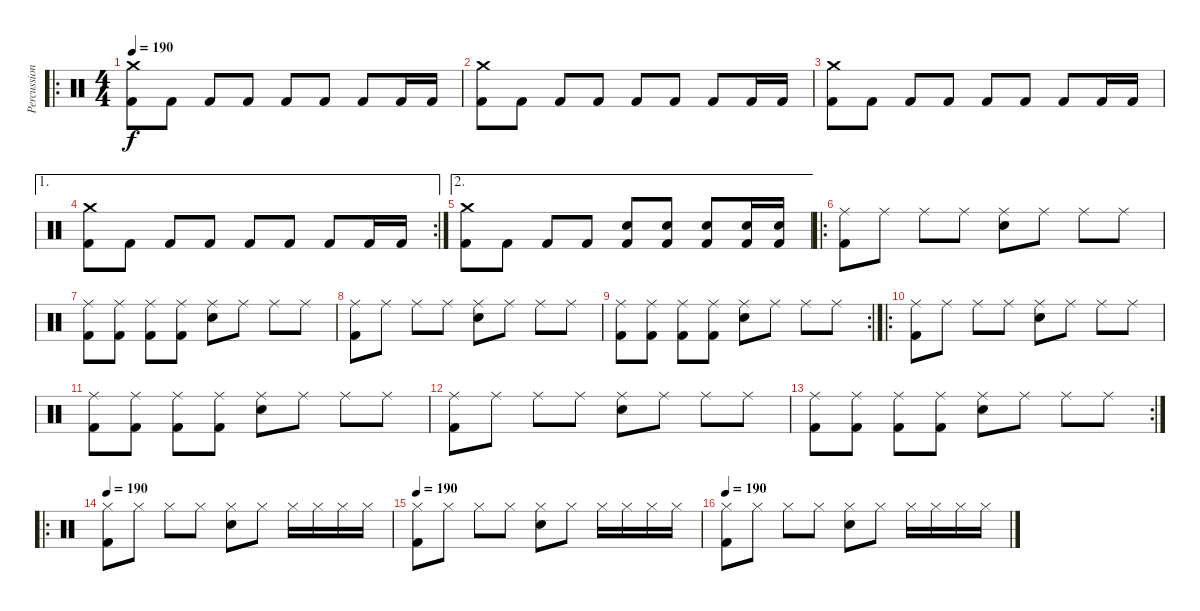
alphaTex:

\track ("Percussion" "Percussion") {instrument percussion}
\staff {score}
\articulation defaults
\ro
\ts (4 4)
\tempo 190
\clef neutral
\ks c
("Crash medium (hit)" "Kick (hit) 2").8{dy f} "Kick (hit) 2".8 "Kick (hit) 2".8 "Kick (hit) 2".8 "Kick (hit) 2".8 "Kick (hit) 2".8 "Kick (hit) 2".8 "Kick (hit) 2".16 "Kick (hit) 2".16 |
("Crash medium (hit)" "Kick (hit) 2").8 "Kick (hit) 2".8 "Kick (hit) 2".8 "Kick (hit) 2".8 "Kick (hit) 2".8 "Kick (hit) 2".8 "Kick (hit) 2".8 "Kick (hit) 2".16 "Kick (hit) 2".16 |
("Crash medium (hit)" "Kick (hit) 2").8 "Kick (hit) 2".8 "Kick (hit) 2".8 "Kick (hit) 2".8 "Kick (hit) 2".8 "Kick (hit) 2".8 "Kick (hit) 2".8 "Kick (hit) 2".16 "Kick (hit) 2".16 |
\ae 1
\rc 2
("Crash medium (hit)" "Kick (hit) 2").8 "Kick (hit) 2".8 "Kick (hit) 2".8 "Kick (hit) 2".8 "Kick (hit) 2".8 "Kick (hit) 2".8 "Kick (hit) 2".8 "Kick (hit) 2".16 "Kick (hit) 2".16 |
\ae 2
("Crash medium (hit)" "Kick (hit) 2").8 "Kick (hit) 2".8 "Kick (hit) 2".8 "Kick (hit) 2".8 ("Electric Snare (hit)" "Kick (hit) 2").8 ("Electric Snare (hit)" "Kick (hit) 2").8 ("Electric Snare (hit)" "Kick (hit) 2").8 ("Electric Snare (hit)" "Kick (hit) 2").16 ("Electric Snare (hit)" "Kick (hit) 2").16 |
\ro
("Ride (middle)" "Kick (hit) 2").8 "Ride (middle)".8 "Ride (middle)".8 "Ride (middle)".8 ("Ride (middle)" "Electric Snare (hit)").8 "Ride (middle)".8 "Ride (middle)".8 "Ride (middle)".8 |
("Ride (middle)" "Kick (hit) 2").8 ("Ride (middle)" "Kick (hit) 2").8 ("Ride (middle)" "Kick (hit) 2").8 ("Ride (middle)" "Kick (hit) 2").8 ("Ride (middle)" "Electric Snare (hit)").8 "Ride (middle)".8 "Ride (middle)".8 "Ride (middle)".8 |
("Ride (middle)" "Kick (hit) 2").8 "Ride (middle)".8 "Ride (middle)".8 "Ride (middle)".8 ("Ride (middle)" "Electric Snare (hit)").8 "Ride (middle)".8 "Ride (middle)".8 "Ride (middle)".8 |
\rc 2
("Ride (middle)" "Kick (hit) 2").8 ("Ride (middle)" "Kick (hit) 2").8 ("Ride (middle)" "Kick (hit) 2").8 ("Ride (middle)" "Kick (hit) 2").8 ("Ride (middle)" "Electric Snare (hit)").8 "Ride (middle)".8 "Ride (middle)".8 "Ride (middle)".8 |
\ro
("Ride (middle)" "Kick (hit) 2").8 "Ride (middle)".8 "Ride (middle)".8 "Ride (middle)".8 ("Ride (middle)" "Electric Snare (hit)").8 "Ride (middle)".8 "Ride (middle)".8 "Ride (middle)".8 |
("Ride (middle)" "Kick (hit) 2").8 ("Ride (middle)" "Kick (hit) 2").8 ("Ride (middle)" "Kick (hit) 2").8 ("Ride (middle)" "Kick (hit) 2").8 ("Ride (middle)" "Electric Snare (hit)").8 "Ride (middle)".8 "Ride (middle)".8 "Ride (middle)".8 |
("Ride (middle)" "Kick (hit) 2").8 "Ride (middle)".8 "Ride (middle)".8 "Ride (middle)".8 ("Ride (middle)" "Electric Snare (hit)").8 "Ride (middle)".8 "Ride (middle)".8 "Ride (middle)".8 |
\rc 2
("Ride (middle)" "Kick (hit) 2").8 ("Ride (middle)" "Kick (hit) 2").8 ("Ride (middle)" "Kick (hit) 2").8 ("Ride (middle)" "Kick (hit) 2").8 ("Ride (middle)" "Electric Snare (hit)").8 "Ride (middle)".8 "Ride (middle)".8 "Ride (middle)".8 |
\ro
\tempo 190
("Hi-Hat (closed)" "Kick (hit) 2").8 "Hi-Hat (closed)".8 "Hi-Hat (closed)".8 "Hi-Hat (closed)".8 ("Hi-Hat (closed)" "Electric Snare (hit)").8 "Hi-Hat (closed)".8 "Hi-Hat (closed)".16 "Hi-Hat (closed)".16 "Hi-Hat (closed)".16 "Hi-Hat (closed)".16 |
\tempo 190
("Hi-Hat (closed)" "Kick (hit) 2").8 "Hi-Hat (closed)".8 "Hi-Hat (closed)".8 "Hi-Hat (closed)".8 ("Hi-Hat (closed)" "Electric Snare (hit)").8 "Hi-Hat (closed)".8 "Hi-Hat (closed)".16 "Hi-Hat (closed)".16 "Hi-Hat (closed)".16 "Hi-Hat (closed)".16 |
\tempo 190
("Hi-Hat (closed)" "Kick (hit) 2").8 "Hi-Hat (closed)".8 "Hi-Hat (closed)".8 "Hi-Hat (closed)".8 ("Hi-Hat (closed)" "Electric Snare (hit)").8 "Hi-Hat (closed)".8 "Hi-Hat (closed)".16 "Hi-Hat (closed)".16 "Hi-Hat (closed)".16 "Hi-Hat (closed)".16
